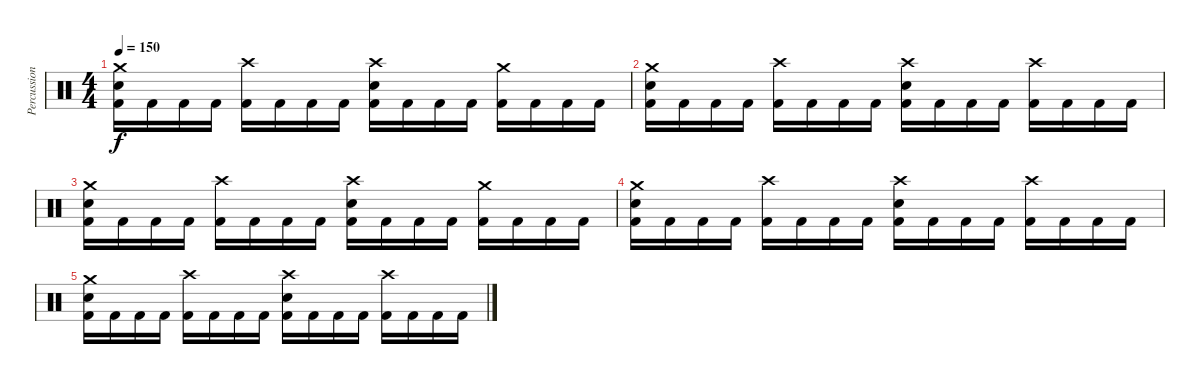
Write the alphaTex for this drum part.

\track ("Percussion" "Percussion") {instrument percussion}
\staff {score}
\articulation defaults
\ts (4 4)
\tempo 150
\clef neutral
\ks c
("Crash medium (hit)" "Snare (hit) 2" "Kick (hit) 2").16{dy f} "Kick (hit) 2".16 "Kick (hit) 2".16 "Kick (hit) 2".16 ("Crash high (hit)" "Kick (hit) 2").16 "Kick (hit) 2".16 "Kick (hit) 2".16 "Kick (hit) 2".16 ("Crash high (hit)" "Snare (hit) 2" "Kick (hit) 2").16 "Kick (hit) 2".16 "Kick (hit) 2".16 "Kick (hit) 2".16 ("Crash medium (hit)" "Kick (hit) 2").16 "Kick (hit) 2".16 "Kick (hit) 2".16 "Kick (hit) 2".16 |
("Crash medium (hit)" "Snare (hit) 2" "Kick (hit) 2").16{volume 0} "Kick (hit) 2".16 "Kick (hit) 2".16 "Kick (hit) 2".16 ("Crash high (hit)" "Kick (hit) 2").16 "Kick (hit) 2".16 "Kick (hit) 2".16 "Kick (hit) 2".16 ("Crash high (hit)" "Snare (hit) 2" "Kick (hit) 2").16 "Kick (hit) 2".16 "Kick (hit) 2".16 "Kick (hit) 2".16 ("Crash high (hit)" "Kick (hit) 2").16 "Kick (hit) 2".16 "Kick (hit) 2".16 "Kick (hit) 2".16 |
("Crash medium (hit)" "Snare (hit) 2" "Kick (hit) 2").16 "Kick (hit) 2".16 "Kick (hit) 2".16 "Kick (hit) 2".16 ("Crash high (hit)" "Kick (hit) 2").16 "Kick (hit) 2".16 "Kick (hit) 2".16 "Kick (hit) 2".16 ("Crash high (hit)" "Snare (hit) 2" "Kick (hit) 2").16 "Kick (hit) 2".16 "Kick (hit) 2".16 "Kick (hit) 2".16 ("Crash medium (hit)" "Kick (hit) 2").16 "Kick (hit) 2".16 "Kick (hit) 2".16 "Kick (hit) 2".16 |
("Crash medium (hit)" "Snare (hit) 2" "Kick (hit) 2").16 "Kick (hit) 2".16 "Kick (hit) 2".16 "Kick (hit) 2".16 ("Crash high (hit)" "Kick (hit) 2").16 "Kick (hit) 2".16 "Kick (hit) 2".16 "Kick (hit) 2".16 ("Crash high (hit)" "Snare (hit) 2" "Kick (hit) 2").16 "Kick (hit) 2".16 "Kick (hit) 2".16 "Kick (hit) 2".16 ("Crash high (hit)" "Kick (hit) 2").16 "Kick (hit) 2".16 "Kick (hit) 2".16 "Kick (hit) 2".16 |
("Crash medium (hit)" "Snare (hit) 2" "Kick (hit) 2").16 "Kick (hit) 2".16 "Kick (hit) 2".16 "Kick (hit) 2".16 ("Crash high (hit)" "Kick (hit) 2").16 "Kick (hit) 2".16 "Kick (hit) 2".16 "Kick (hit) 2".16 ("Crash high (hit)" "Snare (hit) 2" "Kick (hit) 2").16 "Kick (hit) 2".16 "Kick (hit) 2".16 "Kick (hit) 2".16 ("Crash high (hit)" "Kick (hit) 2").16 "Kick (hit) 2".16 "Kick (hit) 2".16 "Kick (hit) 2".16
